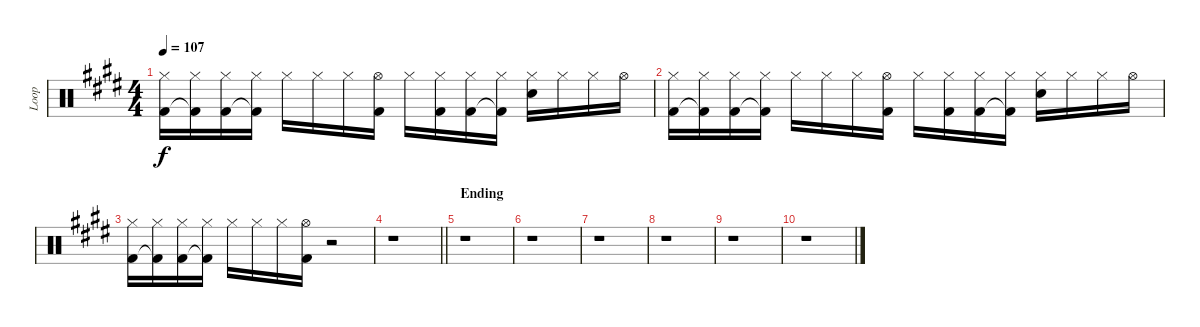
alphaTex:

\track ("Loop" "Loop") {instrument percussion}
\staff {score}
\articulation defaults
\ts (4 4)
\tempo 107
\clef neutral
\ks e
("Hi-Hat (closed)" "Kick (hit) 2").16{dy f} ("Hi-Hat (closed)" "Kick (hit) 2"{t}).16 ("Hi-Hat (closed)" "Kick (hit) 2").16 ("Hi-Hat (closed)" "Kick (hit) 2"{t}).16 "Hi-Hat (closed)".16 "Hi-Hat (closed)".16 "Hi-Hat (closed)".16 ("Hi-Hat (open)" "Kick (hit) 2").16 "Hi-Hat (closed)".16 ("Hi-Hat (closed)" "Kick (hit) 2").16 ("Hi-Hat (closed)" "Kick (hit) 2").16 ("Hi-Hat (closed)" "Kick (hit) 2"{t}).16 ("Hi-Hat (closed)" "Electric Snare (hit)").16 "Hi-Hat (closed)".16 "Hi-Hat (closed)".16 "Hi-Hat (open)".16 |
("Hi-Hat (closed)" "Kick (hit) 2").16 ("Hi-Hat (closed)" "Kick (hit) 2"{t}).16 ("Hi-Hat (closed)" "Kick (hit) 2").16 ("Hi-Hat (closed)" "Kick (hit) 2"{t}).16 "Hi-Hat (closed)".16 "Hi-Hat (closed)".16 "Hi-Hat (closed)".16 ("Hi-Hat (open)" "Kick (hit) 2").16 "Hi-Hat (closed)".16 ("Hi-Hat (closed)" "Kick (hit) 2").16 ("Hi-Hat (closed)" "Kick (hit) 2").16 ("Hi-Hat (closed)" "Kick (hit) 2"{t}).16 ("Hi-Hat (closed)" "Electric Snare (hit)").16 "Hi-Hat (closed)".16 "Hi-Hat (closed)".16 "Hi-Hat (open)".16 |
("Hi-Hat (closed)" "Kick (hit) 2").16 ("Hi-Hat (closed)" "Kick (hit) 2"{t}).16 ("Hi-Hat (closed)" "Kick (hit) 2").16 ("Hi-Hat (closed)" "Kick (hit) 2"{t}).16 "Hi-Hat (closed)".16 "Hi-Hat (closed)".16 "Hi-Hat (closed)".16 ("Hi-Hat (open)" "Kick (hit) 2").16 r.2 |
\barLineRight lightlight
r.1 |
\section ("" "Ending")
r.1 |
r.1 |
r.1 |
r.1 |
r.1 |
r.1
